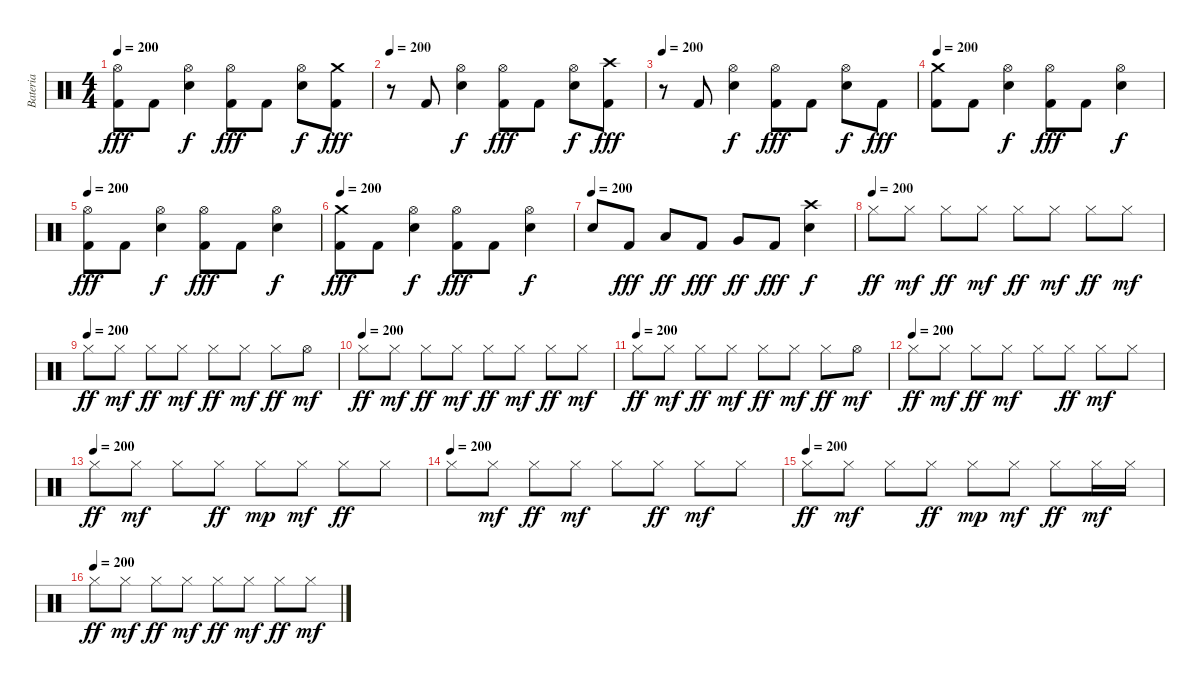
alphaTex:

\track ("Bateria" "Bateria") {instrument percussion}
\staff {score}
\articulation defaults
\ts (4 4)
\tempo 200
\clef neutral
\ks c
("Hi-Hat (open)" "Kick (hit) 2").8{dy fff} "Kick (hit) 2".8 ("Hi-Hat (open)" "Electric Snare (hit)").4{dy f} ("Hi-Hat (open)" "Kick (hit) 2").8{dy fff} "Kick (hit) 2".8 ("Hi-Hat (open)" "Electric Snare (hit)").8{dy f} ("Crash medium (hit)" "Kick (hit) 2").8{dy fff} |
\tempo 200
r.8 "Kick (hit) 2".8 ("Hi-Hat (open)" "Electric Snare (hit)").4{dy f} ("Hi-Hat (open)" "Kick (hit) 2").8{dy fff} "Kick (hit) 2".8 ("Hi-Hat (open)" "Electric Snare (hit)").8{dy f} ("Crash high (hit)" "Kick (hit) 2").8{dy fff} |
\tempo 200
r.8 "Kick (hit) 2".8 ("Hi-Hat (open)" "Electric Snare (hit)").4{dy f} ("Hi-Hat (open)" "Kick (hit) 2").8{dy fff} "Kick (hit) 2".8 ("Hi-Hat (open)" "Electric Snare (hit)").8{dy f} "Kick (hit) 2".8{dy fff} |
\tempo 200
("Crash medium (hit)" "Kick (hit) 2").8 "Kick (hit) 2".8 ("Hi-Hat (open)" "Electric Snare (hit)").4{dy f} ("Hi-Hat (open)" "Kick (hit) 2").8{dy fff} "Kick (hit) 2".8 ("Hi-Hat (open)" "Electric Snare (hit)").4{dy f} |
\tempo 200
("Hi-Hat (open)" "Kick (hit) 2").8{dy fff} "Kick (hit) 2".8 ("Hi-Hat (open)" "Electric Snare (hit)").4{dy f} ("Hi-Hat (open)" "Kick (hit) 2").8{dy fff} "Kick (hit) 2".8 ("Hi-Hat (open)" "Electric Snare (hit)").4{dy f} |
\tempo 200
("Crash medium (hit)" "Kick (hit) 2").8{dy fff} "Kick (hit) 2".8 ("Hi-Hat (open)" "Electric Snare (hit)").4{dy f} ("Hi-Hat (open)" "Kick (hit) 2").8{dy fff} "Kick (hit) 2".8 ("Hi-Hat (open)" "Electric Snare (hit)").4{dy f} |
\tempo (200)
"Electric Snare (hit)".8 "Kick (hit) 2".8{dy fff} "Low Tom (hit)".8{dy ff} "Kick (hit) 2".8{dy fff} "Very Low Tom (hit)".8{dy ff} "Kick (hit) 2".8{dy fff} ("Crash high (hit)" "Electric Snare (hit)").4{dy f} |
\tempo (200)
"Hi-Hat (closed)".8{dy ff} "Hi-Hat (closed)".8{dy mf} "Hi-Hat (closed)".8{dy ff} "Hi-Hat (closed)".8{dy mf} "Hi-Hat (closed)".8{dy ff} "Hi-Hat (closed)".8{dy mf} "Hi-Hat (closed)".8{dy ff} "Hi-Hat (closed)".8{dy mf} |
\tempo (200)
"Hi-Hat (closed)".8{dy ff} "Hi-Hat (closed)".8{dy mf} "Hi-Hat (closed)".8{dy ff} "Hi-Hat (closed)".8{dy mf} "Hi-Hat (closed)".8{dy ff} "Hi-Hat (closed)".8{dy mf} "Hi-Hat (closed)".8{dy ff} "Hi-Hat (open)".8{dy mf} |
\tempo (200)
"Hi-Hat (closed)".8{dy ff} "Hi-Hat (closed)".8{dy mf} "Hi-Hat (closed)".8{dy ff} "Hi-Hat (closed)".8{dy mf} "Hi-Hat (closed)".8{dy ff} "Hi-Hat (closed)".8{dy mf} "Hi-Hat (closed)".8{dy ff} "Hi-Hat (closed)".8{dy mf} |
\tempo (200)
"Hi-Hat (closed)".8{dy ff} "Hi-Hat (closed)".8{dy mf} "Hi-Hat (closed)".8{dy ff} "Hi-Hat (closed)".8{dy mf} "Hi-Hat (closed)".8{dy ff} "Hi-Hat (closed)".8{dy mf} "Hi-Hat (closed)".8{dy ff} "Hi-Hat (open)".8{dy mf} |
\tempo (200)
"Hi-Hat (closed)".8{dy ff} "Hi-Hat (closed)".8{dy mf} "Hi-Hat (closed)".8{dy ff} "Hi-Hat (closed)".8{dy mf} "Hi-Hat (closed)".8 "Hi-Hat (closed)".8{dy ff} "Hi-Hat (closed)".8{dy mf} "Hi-Hat (closed)".8 |
\tempo (200)
"Hi-Hat (closed)".8{dy ff} "Hi-Hat (closed)".8{dy mf} "Hi-Hat (closed)".8 "Hi-Hat (closed)".8{dy ff} "Hi-Hat (closed)".8{dy mp} "Hi-Hat (closed)".8{dy mf} "Hi-Hat (closed)".8{dy ff} "Hi-Hat (closed)".8 |
\tempo (200)
"Hi-Hat (closed)".8 "Hi-Hat (closed)".8{dy mf} "Hi-Hat (closed)".8{dy ff} "Hi-Hat (closed)".8{dy mf} "Hi-Hat (closed)".8 "Hi-Hat (closed)".8{dy ff} "Hi-Hat (closed)".8{dy mf} "Hi-Hat (closed)".8 |
\tempo (200)
"Hi-Hat (closed)".8{dy ff} "Hi-Hat (closed)".8{dy mf} "Hi-Hat (closed)".8 "Hi-Hat (closed)".8{dy ff} "Hi-Hat (closed)".8{dy mp} "Hi-Hat (closed)".8{dy mf} "Hi-Hat (closed)".8{dy ff} "Hi-Hat (closed)".16{dy mf} "Hi-Hat (closed)".16 |
\tempo (200)
"Hi-Hat (closed)".8{dy ff} "Hi-Hat (closed)".8{dy mf} "Hi-Hat (closed)".8{dy ff} "Hi-Hat (closed)".8{dy mf} "Hi-Hat (closed)".8{dy ff} "Hi-Hat (closed)".8{dy mf} "Hi-Hat (closed)".8{dy ff} "Hi-Hat (closed)".8{dy mf}
